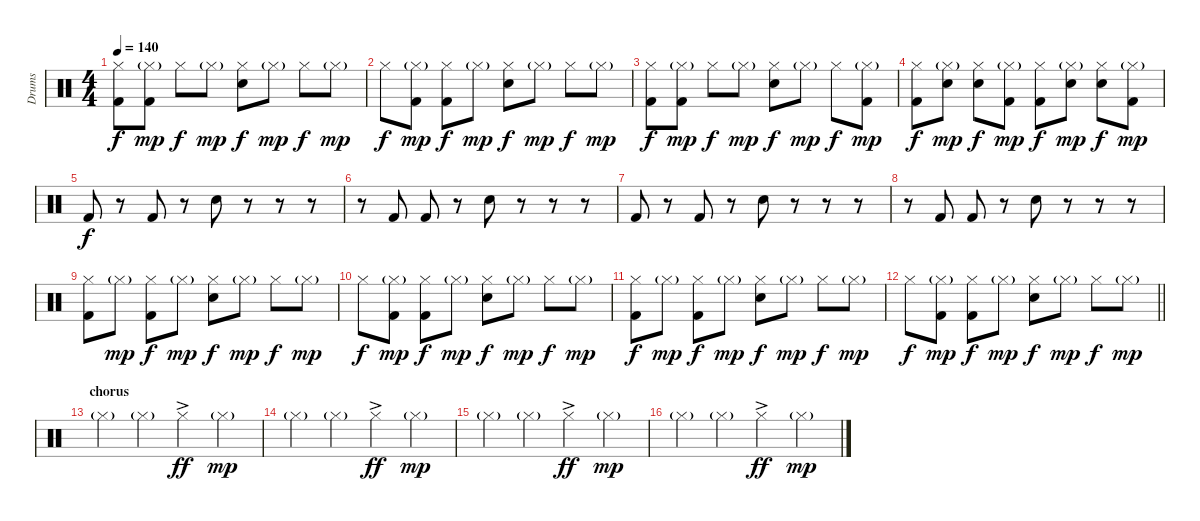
\track ("Drums" "Drums") {instrument percussion}
\staff {score}
\articulation defaults
\ts (4 4)
\tempo 140
\clef neutral
\ks c
("Hi-Hat (closed)" "Kick (hit) 2").8{dy f} ("Hi-Hat (closed)"{g} "Kick (hit) 2").8{dy mp} "Hi-Hat (closed)".8{dy f} "Hi-Hat (closed)"{g}.8{dy mp} ("Hi-Hat (closed)" "Electric Snare (hit)").8{dy f} "Hi-Hat (closed)"{g}.8{dy mp} "Hi-Hat (closed)".8{dy f} "Hi-Hat (closed)"{g}.8{dy mp} |
"Hi-Hat (closed)".8{dy f} ("Hi-Hat (closed)"{g} "Kick (hit) 2").8{dy mp} ("Hi-Hat (closed)" "Kick (hit) 2").8{dy f} "Hi-Hat (closed)"{g}.8{dy mp} ("Hi-Hat (closed)" "Electric Snare (hit)").8{dy f} "Hi-Hat (closed)"{g}.8{dy mp} "Hi-Hat (closed)".8{dy f} "Hi-Hat (closed)"{g}.8{dy mp} |
("Hi-Hat (closed)" "Kick (hit) 2").8{dy f} ("Hi-Hat (closed)"{g} "Kick (hit) 2").8{dy mp} "Hi-Hat (closed)".8{dy f} "Hi-Hat (closed)"{g}.8{dy mp} ("Hi-Hat (closed)" "Electric Snare (hit)").8{dy f} "Hi-Hat (closed)"{g}.8{dy mp} "Hi-Hat (closed)".8{dy f} ("Hi-Hat (closed)"{g} "Kick (hit) 2").8{dy mp} |
("Hi-Hat (closed)" "Kick (hit) 2").8{dy f} ("Hi-Hat (closed)"{g} "Electric Snare (hit)").8{dy mp} ("Hi-Hat (closed)" "Electric Snare (hit)").8{dy f} ("Hi-Hat (closed)"{g} "Kick (hit) 2").8{dy mp} ("Hi-Hat (closed)" "Kick (hit) 2").8{dy f} ("Hi-Hat (closed)"{g} "Electric Snare (hit)").8{dy mp} ("Hi-Hat (closed)" "Electric Snare (hit)").8{dy f} ("Hi-Hat (closed)"{g} "Kick (hit) 2").8{dy mp} |
"Kick (hit) 2".8{dy f} r.8 "Kick (hit) 2".8 r.8 "Electric Snare (hit)".8 r.8 r.8 r.8 |
r.8 "Kick (hit) 2".8 "Kick (hit) 2".8 r.8 "Electric Snare (hit)".8 r.8 r.8 r.8 |
"Kick (hit) 2".8 r.8 "Kick (hit) 2".8 r.8 "Electric Snare (hit)".8 r.8 r.8 r.8 |
r.8 "Kick (hit) 2".8 "Kick (hit) 2".8 r.8 "Electric Snare (hit)".8 r.8 r.8 r.8 |
("Hi-Hat (closed)" "Kick (hit) 2").8 "Hi-Hat (closed)"{g}.8{dy mp} ("Hi-Hat (closed)" "Kick (hit) 2").8{dy f} "Hi-Hat (closed)"{g}.8{dy mp} ("Hi-Hat (closed)" "Electric Snare (hit)").8{dy f} "Hi-Hat (closed)"{g}.8{dy mp} "Hi-Hat (closed)".8{dy f} "Hi-Hat (closed)"{g}.8{dy mp} |
"Hi-Hat (closed)".8{dy f} ("Hi-Hat (closed)"{g} "Kick (hit) 2").8{dy mp} ("Hi-Hat (closed)" "Kick (hit) 2").8{dy f} "Hi-Hat (closed)"{g}.8{dy mp} ("Hi-Hat (closed)" "Electric Snare (hit)").8{dy f} "Hi-Hat (closed)"{g}.8{dy mp} "Hi-Hat (closed)".8{dy f} "Hi-Hat (closed)"{g}.8{dy mp} |
("Hi-Hat (closed)" "Kick (hit) 2").8{dy f} "Hi-Hat (closed)"{g}.8{dy mp} ("Hi-Hat (closed)" "Kick (hit) 2").8{dy f} "Hi-Hat (closed)"{g}.8{dy mp} ("Hi-Hat (closed)" "Electric Snare (hit)").8{dy f} "Hi-Hat (closed)"{g}.8{dy mp} "Hi-Hat (closed)".8{dy f} "Hi-Hat (closed)"{g}.8{dy mp} |
\barLineRight lightlight "Hi-Hat (closed)".8{dy f}
("Hi-Hat (closed)"{g} "Kick (hit) 2").8{dy mp} ("Hi-Hat (closed)" "Kick (hit) 2").8{dy f} "Hi-Hat (closed)"{g}.8{dy mp} ("Hi-Hat (closed)" "Electric Snare (hit)").8{dy f} "Hi-Hat (closed)"{g}.8{dy mp} "Hi-Hat (closed)".8{dy f} "Hi-Hat (closed)"{g}.8{dy mp} |
\section ("" "chorus")
"Hi-Hat (closed)"{g}.4 "Hi-Hat (closed)"{g}.4 "Hi-Hat (closed)"{ac}.4{dy ff} "Hi-Hat (closed)"{g}.4{dy mp} |
"Hi-Hat (closed)"{g}.4 "Hi-Hat (closed)"{g}.4 "Hi-Hat (closed)"{ac}.4{dy ff} "Hi-Hat (closed)"{g}.4{dy mp} |
"Hi-Hat (closed)"{g}.4 "Hi-Hat (closed)"{g}.4 "Hi-Hat (closed)"{ac}.4{dy ff} "Hi-Hat (closed)"{g}.4{dy mp} |
"Hi-Hat (closed)"{g}.4 "Hi-Hat (closed)"{g}.4 "Hi-Hat (closed)"{ac}.4{dy ff} "Hi-Hat (closed)"{g}.4{dy mp}
